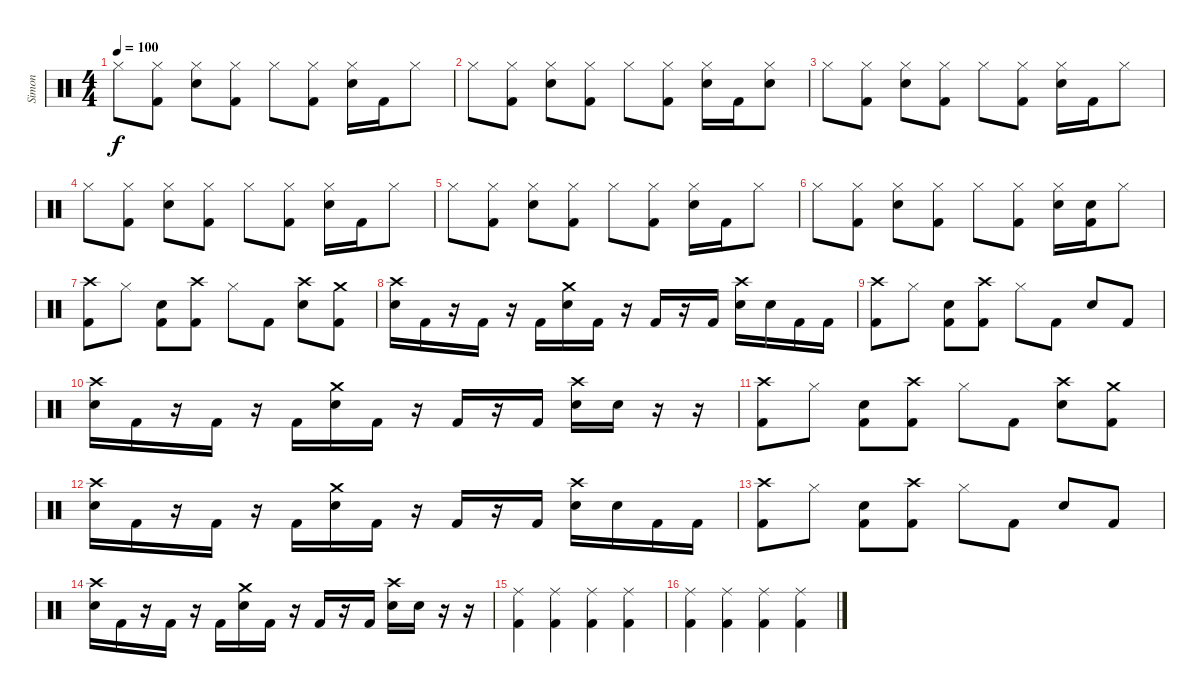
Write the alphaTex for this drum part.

\track ("Simon" "Simon") {instrument percussion}
\staff {score}
\articulation defaults
\ts (4 4)
\tempo 100
\clef neutral
\ks c "Hi-Hat (closed)".8{dy f}
("Hi-Hat (closed)" "Kick (hit) 2").8 ("Hi-Hat (closed)" "Snare (hit) 2").8 ("Hi-Hat (closed)" "Kick (hit) 2").8 "Hi-Hat (closed)".8 ("Hi-Hat (closed)" "Kick (hit) 2").8 ("Hi-Hat (closed)" "Snare (hit) 2").16 "Kick (hit) 2".16 "Hi-Hat (closed)".8 |
"Hi-Hat (closed)".8 ("Hi-Hat (closed)" "Kick (hit) 2").8 ("Hi-Hat (closed)" "Snare (hit) 2").8 ("Hi-Hat (closed)" "Kick (hit) 2").8 "Hi-Hat (closed)".8 ("Hi-Hat (closed)" "Kick (hit) 2").8 ("Hi-Hat (closed)" "Snare (hit) 2").16 "Kick (hit) 2".16 ("Hi-Hat (closed)" "Snare (hit) 2").8 |
"Hi-Hat (closed)".8 ("Hi-Hat (closed)" "Kick (hit) 2").8 ("Hi-Hat (closed)" "Snare (hit) 2").8 ("Hi-Hat (closed)" "Kick (hit) 2").8 "Hi-Hat (closed)".8 ("Hi-Hat (closed)" "Kick (hit) 2").8 ("Hi-Hat (closed)" "Snare (hit) 2").16 "Kick (hit) 2".16 "Hi-Hat (closed)".8 |
"Hi-Hat (closed)".8 ("Hi-Hat (closed)" "Kick (hit) 2").8 ("Hi-Hat (closed)" "Snare (hit) 2").8 ("Hi-Hat (closed)" "Kick (hit) 2").8 "Hi-Hat (closed)".8 ("Hi-Hat (closed)" "Kick (hit) 2").8 ("Hi-Hat (closed)" "Snare (hit) 2").16 "Kick (hit) 2".16 "Hi-Hat (closed)".8 |
"Hi-Hat (closed)".8 ("Hi-Hat (closed)" "Kick (hit) 2").8 ("Hi-Hat (closed)" "Snare (hit) 2").8 ("Hi-Hat (closed)" "Kick (hit) 2").8 "Hi-Hat (closed)".8 ("Hi-Hat (closed)" "Kick (hit) 2").8 ("Hi-Hat (closed)" "Snare (hit) 2").16 "Kick (hit) 2".16 "Hi-Hat (closed)".8 |
"Hi-Hat (closed)".8 ("Hi-Hat (closed)" "Kick (hit) 2").8 ("Hi-Hat (closed)" "Snare (hit) 2").8 ("Hi-Hat (closed)" "Kick (hit) 2").8 "Hi-Hat (closed)".8 ("Hi-Hat (closed)" "Kick (hit) 2").8 ("Hi-Hat (closed)" "Snare (hit) 2").16 ("Snare (hit) 2" "Kick (hit) 2").16 "Hi-Hat (closed)".8 |
("Crash high (hit)" "Kick (hit) 2").8 "Hi-Hat (closed)".8 ("Snare (hit) 2" "Kick (hit) 2").8 ("Crash high (hit)" "Kick (hit) 2").8 "Hi-Hat (closed)".8 "Kick (hit) 2".8 ("Crash high (hit)" "Snare (hit) 2").8 ("Crash medium (hit)" "Kick (hit) 2").8 |
("Crash high (hit)" "Snare (hit) 2").16 "Kick (hit) 2".16 r.16 "Kick (hit) 2".16 r.16 "Kick (hit) 2".16 ("Crash medium (hit)" "Snare (hit) 2").16 "Kick (hit) 2".16 r.16 "Kick (hit) 2".16 r.16 "Kick (hit) 2".16 ("Crash high (hit)" "Snare (hit) 2").16 "Snare (hit) 2".16 "Kick (hit) 2".16 "Kick (hit) 2".16 |
("Crash high (hit)" "Kick (hit) 2").8 "Hi-Hat (closed)".8 ("Snare (hit) 2" "Kick (hit) 2").8 ("Crash high (hit)" "Kick (hit) 2").8 "Hi-Hat (closed)".8 "Kick (hit) 2".8 "Snare (hit) 2".8 "Kick (hit) 2".8 |
("Crash high (hit)" "Snare (hit) 2").16 "Kick (hit) 2".16 r.16 "Kick (hit) 2".16 r.16 "Kick (hit) 2".16 ("Crash medium (hit)" "Snare (hit) 2").16 "Kick (hit) 2".16 r.16 "Kick (hit) 2".16 r.16 "Kick (hit) 2".16 ("Crash high (hit)" "Snare (hit) 2").16 "Snare (hit) 2".16 r.16 r.16 |
("Crash high (hit)" "Kick (hit) 2").8 "Hi-Hat (closed)".8 ("Snare (hit) 2" "Kick (hit) 2").8 ("Crash high (hit)" "Kick (hit) 2").8 "Hi-Hat (closed)".8 "Kick (hit) 2".8 ("Crash high (hit)" "Snare (hit) 2").8 ("Crash medium (hit)" "Kick (hit) 2").8 |
("Crash high (hit)" "Snare (hit) 2").16 "Kick (hit) 2".16 r.16 "Kick (hit) 2".16 r.16 "Kick (hit) 2".16 ("Crash medium (hit)" "Snare (hit) 2").16 "Kick (hit) 2".16 r.16 "Kick (hit) 2".16 r.16 "Kick (hit) 2".16 ("Crash high (hit)" "Snare (hit) 2").16 "Snare (hit) 2".16 "Kick (hit) 2".16 "Kick (hit) 2".16 |
("Crash high (hit)" "Kick (hit) 2").8 "Hi-Hat (closed)".8 ("Snare (hit) 2" "Kick (hit) 2").8 ("Crash high (hit)" "Kick (hit) 2").8 "Hi-Hat (closed)".8 "Kick (hit) 2".8 "Snare (hit) 2".8 "Kick (hit) 2".8 |
("Crash high (hit)" "Snare (hit) 2").16 "Kick (hit) 2".16 r.16 "Kick (hit) 2".16 r.16 "Kick (hit) 2".16 ("Crash medium (hit)" "Snare (hit) 2").16 "Kick (hit) 2".16 r.16 "Kick (hit) 2".16 r.16 "Kick (hit) 2".16 ("Crash high (hit)" "Snare (hit) 2").16 "Snare (hit) 2".16 r.16 r.16 |
("Ride (middle)" "Kick (hit) 2").4 ("Ride (middle)" "Kick (hit) 2").4 ("Ride (middle)" "Kick (hit) 2").4 ("Ride (middle)" "Kick (hit) 2").4 |
("Ride (middle)" "Kick (hit) 2").4 ("Ride (middle)" "Kick (hit) 2").4 ("Ride (middle)" "Kick (hit) 2").4 ("Ride (middle)" "Kick (hit) 2").4
